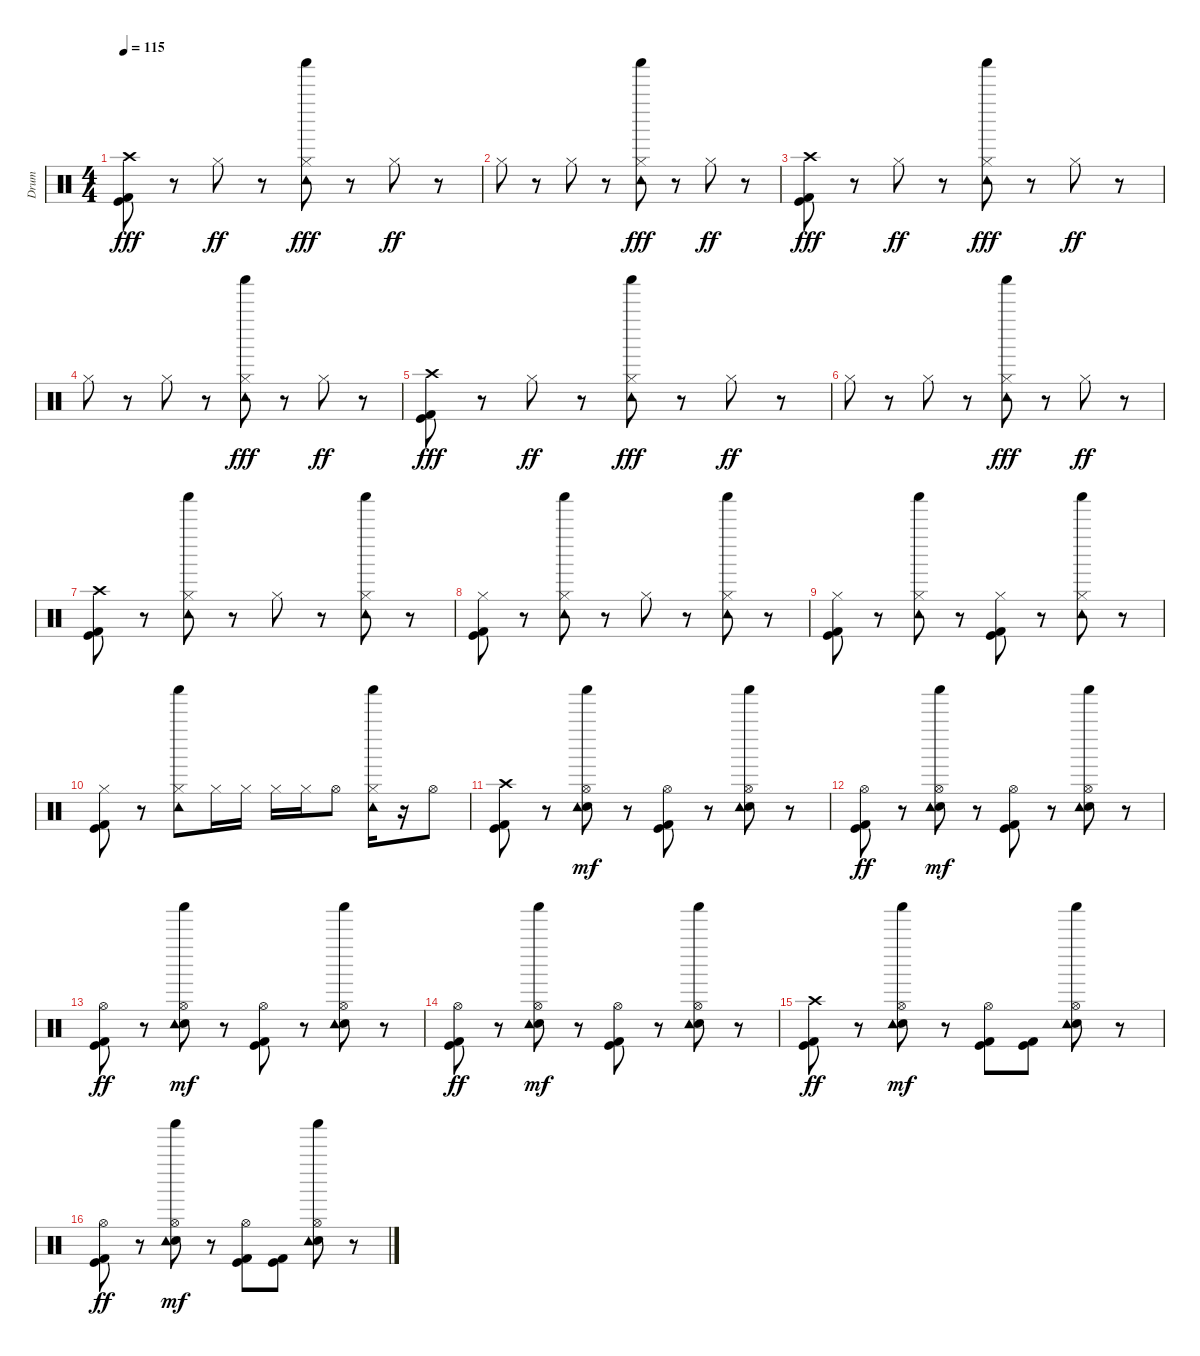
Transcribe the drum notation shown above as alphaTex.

\track ("Drum" "Drum") {instrument percussion}
\staff {score}
\articulation defaults
\ts (4 4)
\tempo 115
\clef neutral
\ks c
("Crash high (hit)" "Kick (hit)" "Kick (hit) 2").8{dy fff} r.8 "Hi-Hat (closed)".8{dy ff} r.8 ("Hi-Hat (closed)" "Shaker (hit)" "Tambourine (hit)").8{dy fff} r.8 "Hi-Hat (closed)".8{dy ff} r.8 |
"Hi-Hat (closed)".8 r.8 "Hi-Hat (closed)".8 r.8 ("Hi-Hat (closed)" "Shaker (hit)" "Tambourine (hit)").8{dy fff} r.8 "Hi-Hat (closed)".8{dy ff} r.8 |
("Crash high (hit)" "Kick (hit)" "Kick (hit) 2").8{dy fff} r.8 "Hi-Hat (closed)".8{dy ff} r.8 ("Hi-Hat (closed)" "Shaker (hit)" "Tambourine (hit)").8{dy fff} r.8 "Hi-Hat (closed)".8{dy ff} r.8 |
"Hi-Hat (closed)".8 r.8 "Hi-Hat (closed)".8 r.8 ("Hi-Hat (closed)" "Shaker (hit)" "Tambourine (hit)").8{dy fff} r.8 "Hi-Hat (closed)".8{dy ff} r.8 |
("Crash high (hit)" "Kick (hit)" "Kick (hit) 2").8{dy fff} r.8 "Hi-Hat (closed)".8{dy ff} r.8 ("Hi-Hat (closed)" "Shaker (hit)" "Tambourine (hit)").8{dy fff} r.8 "Hi-Hat (closed)".8{dy ff} r.8 |
"Hi-Hat (closed)".8 r.8 "Hi-Hat (closed)".8 r.8 ("Hi-Hat (closed)" "Shaker (hit)" "Tambourine (hit)").8{dy fff} r.8 "Hi-Hat (closed)".8{dy ff} r.8 |
("Crash high (hit)" "Kick (hit)" "Kick (hit) 2").8 r.8 ("Hi-Hat (closed)" "Shaker (hit)" "Tambourine (hit)").8 r.8 "Hi-Hat (closed)".8 r.8 ("Hi-Hat (closed)" "Shaker (hit)" "Tambourine (hit)").8 r.8 |
("Hi-Hat (closed)" "Kick (hit)" "Kick (hit) 2").8 r.8 ("Hi-Hat (closed)" "Shaker (hit)" "Tambourine (hit)").8 r.8 "Hi-Hat (closed)".8 r.8 ("Hi-Hat (closed)" "Shaker (hit)" "Tambourine (hit)").8 r.8 |
("Hi-Hat (closed)" "Kick (hit)" "Kick (hit) 2").8 r.8 ("Hi-Hat (closed)" "Shaker (hit)" "Tambourine (hit)").8 r.8 ("Hi-Hat (closed)" "Kick (hit)" "Kick (hit) 2").8 r.8 ("Hi-Hat (closed)" "Shaker (hit)" "Tambourine (hit)").8 r.8 |
("Hi-Hat (closed)" "Kick (hit)" "Kick (hit) 2").8 r.8 ("Hi-Hat (closed)" "Shaker (hit)" "Tambourine (hit)").8 "Hi-Hat (closed)".16 "Hi-Hat (closed)".16 "Hi-Hat (closed)".16 "Hi-Hat (closed)".16 "Hi-Hat (open)".8 ("Hi-Hat (closed)" "Shaker (hit)" "Tambourine (hit)").16 r.16 "Hi-Hat (open)".8 |
("Crash high (hit)" "Kick (hit)" "Kick (hit) 2").8 r.8 ("Hi-Hat (open)" "Shaker (hit)" "Snare (hit) 2" "Tambourine (hit)").8{dy mf} r.8 ("Hi-Hat (open)" "Kick (hit)" "Kick (hit) 2").8 r.8 ("Hi-Hat (open)" "Shaker (hit)" "Snare (hit) 2" "Tambourine (hit)").8 r.8 |
("Hi-Hat (open)" "Kick (hit)" "Kick (hit) 2").8{dy ff} r.8 ("Hi-Hat (open)" "Shaker (hit)" "Snare (hit) 2" "Tambourine (hit)").8{dy mf} r.8 ("Hi-Hat (open)" "Kick (hit)" "Kick (hit) 2").8 r.8 ("Hi-Hat (open)" "Shaker (hit)" "Snare (hit) 2" "Tambourine (hit)").8 r.8 |
("Hi-Hat (open)" "Kick (hit)" "Kick (hit) 2").8{dy ff} r.8 ("Hi-Hat (open)" "Shaker (hit)" "Snare (hit) 2" "Tambourine (hit)").8{dy mf} r.8 ("Hi-Hat (open)" "Kick (hit)" "Kick (hit) 2").8 r.8 ("Hi-Hat (open)" "Shaker (hit)" "Snare (hit) 2" "Tambourine (hit)").8 r.8 |
("Hi-Hat (open)" "Kick (hit)" "Kick (hit) 2").8{dy ff} r.8 ("Hi-Hat (open)" "Shaker (hit)" "Snare (hit) 2" "Tambourine (hit)").8{dy mf} r.8 ("Hi-Hat (open)" "Kick (hit)" "Kick (hit) 2").8 r.8 ("Hi-Hat (open)" "Shaker (hit)" "Snare (hit) 2" "Tambourine (hit)").8 r.8 |
("Crash high (hit)" "Kick (hit)" "Kick (hit) 2").8{dy ff} r.8 ("Hi-Hat (open)" "Shaker (hit)" "Snare (hit) 2" "Tambourine (hit)").8{dy mf} r.8 ("Hi-Hat (open)" "Kick (hit)" "Kick (hit) 2").8 ("Kick (hit)" "Kick (hit) 2").8 ("Hi-Hat (open)" "Shaker (hit)" "Snare (hit) 2" "Tambourine (hit)").8 r.8 |
("Hi-Hat (open)" "Kick (hit)" "Kick (hit) 2").8{dy ff} r.8 ("Hi-Hat (open)" "Shaker (hit)" "Snare (hit) 2" "Tambourine (hit)").8{dy mf} r.8 ("Hi-Hat (open)" "Kick (hit)" "Kick (hit) 2").8 ("Kick (hit)" "Kick (hit) 2").8 ("Hi-Hat (open)" "Shaker (hit)" "Snare (hit) 2" "Tambourine (hit)").8 r.8
